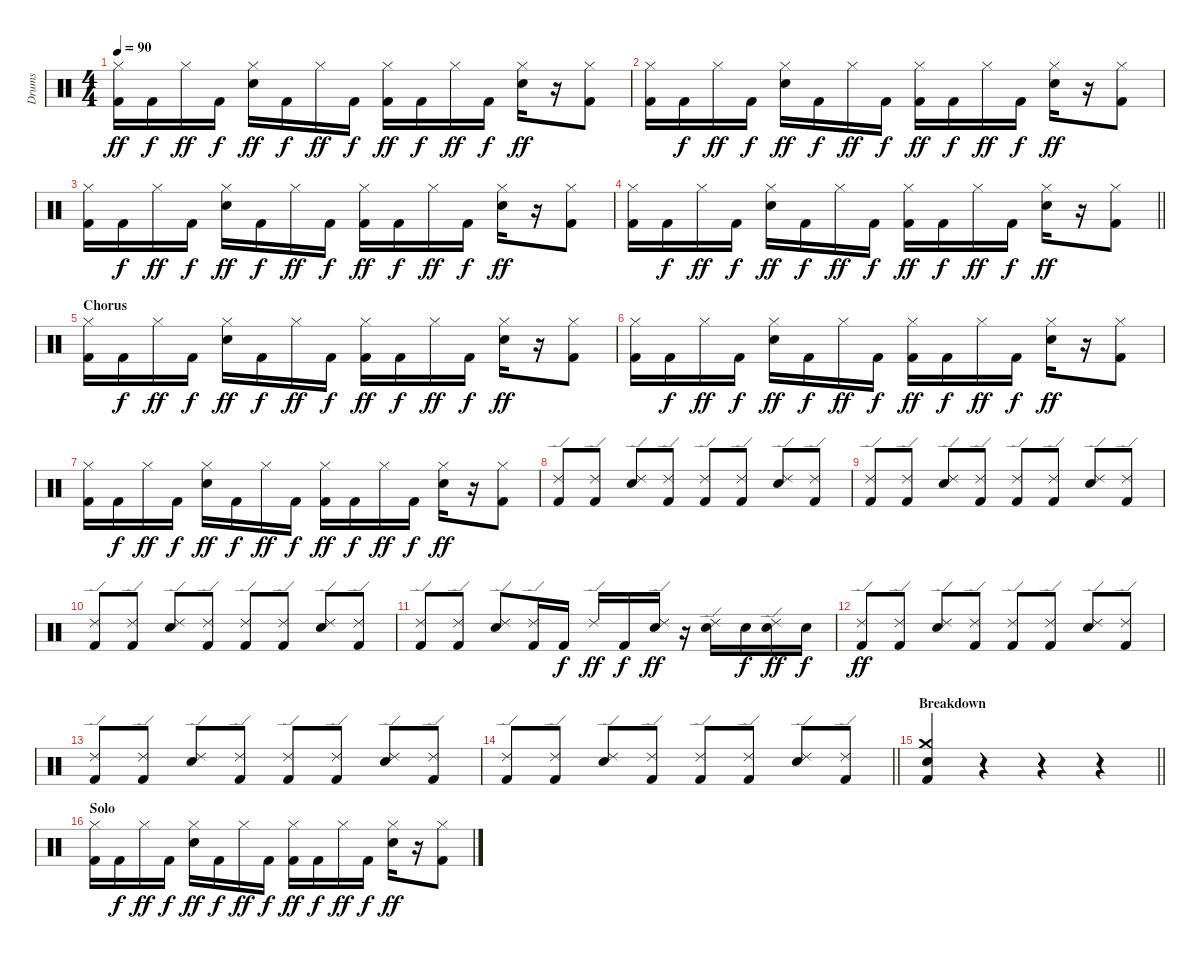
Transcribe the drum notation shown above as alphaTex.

\track ("Drums" "Drums") {instrument percussion}
\staff {score}
\articulation defaults
\ts (4 4)
\tempo 90
\clef neutral
\ks c
("Hi-Hat (closed)" "Kick (hit) 2").16{dy ff} "Kick (hit) 2".16{dy f} "Hi-Hat (closed)".16{dy ff} "Kick (hit) 2".16{dy f} ("Hi-Hat (closed)" "Electric Snare (hit)").16{dy ff} "Kick (hit) 2".16{dy f} "Hi-Hat (closed)".16{dy ff} "Kick (hit) 2".16{dy f} ("Hi-Hat (closed)" "Kick (hit) 2").16{dy ff} "Kick (hit) 2".16{dy f} "Hi-Hat (closed)".16{dy ff} "Kick (hit) 2".16{dy f} ("Hi-Hat (closed)" "Electric Snare (hit)").16{dy ff} r.16 ("Hi-Hat (closed)" "Kick (hit) 2").8 |
("Hi-Hat (closed)" "Kick (hit) 2").16 "Kick (hit) 2".16{dy f} "Hi-Hat (closed)".16{dy ff} "Kick (hit) 2".16{dy f} ("Hi-Hat (closed)" "Electric Snare (hit)").16{dy ff} "Kick (hit) 2".16{dy f} "Hi-Hat (closed)".16{dy ff} "Kick (hit) 2".16{dy f} ("Hi-Hat (closed)" "Kick (hit) 2").16{dy ff} "Kick (hit) 2".16{dy f} "Hi-Hat (closed)".16{dy ff} "Kick (hit) 2".16{dy f} ("Hi-Hat (closed)" "Electric Snare (hit)").16{dy ff} r.16 ("Hi-Hat (closed)" "Kick (hit) 2").8 |
("Hi-Hat (closed)" "Kick (hit) 2").16 "Kick (hit) 2".16{dy f} "Hi-Hat (closed)".16{dy ff} "Kick (hit) 2".16{dy f} ("Hi-Hat (closed)" "Electric Snare (hit)").16{dy ff} "Kick (hit) 2".16{dy f} "Hi-Hat (closed)".16{dy ff} "Kick (hit) 2".16{dy f} ("Hi-Hat (closed)" "Kick (hit) 2").16{dy ff} "Kick (hit) 2".16{dy f} "Hi-Hat (closed)".16{dy ff} "Kick (hit) 2".16{dy f} ("Hi-Hat (closed)" "Electric Snare (hit)").16{dy ff} r.16 ("Hi-Hat (closed)" "Kick (hit) 2").8 |
\barLineRight lightlight
("Hi-Hat (closed)" "Kick (hit) 2").16 "Kick (hit) 2".16{dy f} "Hi-Hat (closed)".16{dy ff} "Kick (hit) 2".16{dy f} ("Hi-Hat (closed)" "Electric Snare (hit)").16{dy ff} "Kick (hit) 2".16{dy f} "Hi-Hat (closed)".16{dy ff} "Kick (hit) 2".16{dy f} ("Hi-Hat (closed)" "Kick (hit) 2").16{dy ff} "Kick (hit) 2".16{dy f} "Hi-Hat (closed)".16{dy ff} "Kick (hit) 2".16{dy f} ("Hi-Hat (closed)" "Electric Snare (hit)").16{dy ff} r.16 ("Hi-Hat (closed)" "Kick (hit) 2").8 |
\section ("" "Chorus")
("Hi-Hat (closed)" "Kick (hit) 2").16 "Kick (hit) 2".16{dy f} "Hi-Hat (closed)".16{dy ff} "Kick (hit) 2".16{dy f} ("Hi-Hat (closed)" "Electric Snare (hit)").16{dy ff} "Kick (hit) 2".16{dy f} "Hi-Hat (closed)".16{dy ff} "Kick (hit) 2".16{dy f} ("Hi-Hat (closed)" "Kick (hit) 2").16{dy ff} "Kick (hit) 2".16{dy f} "Hi-Hat (closed)".16{dy ff} "Kick (hit) 2".16{dy f} ("Hi-Hat (closed)" "Electric Snare (hit)").16{dy ff} r.16 ("Hi-Hat (closed)" "Kick (hit) 2").8 |
("Hi-Hat (closed)" "Kick (hit) 2").16 "Kick (hit) 2".16{dy f} "Hi-Hat (closed)".16{dy ff} "Kick (hit) 2".16{dy f} ("Hi-Hat (closed)" "Electric Snare (hit)").16{dy ff} "Kick (hit) 2".16{dy f} "Hi-Hat (closed)".16{dy ff} "Kick (hit) 2".16{dy f} ("Hi-Hat (closed)" "Kick (hit) 2").16{dy ff} "Kick (hit) 2".16{dy f} "Hi-Hat (closed)".16{dy ff} "Kick (hit) 2".16{dy f} ("Hi-Hat (closed)" "Electric Snare (hit)").16{dy ff} r.16 ("Hi-Hat (closed)" "Kick (hit) 2").8 |
("Hi-Hat (closed)" "Kick (hit) 2").16 "Kick (hit) 2".16{dy f} "Hi-Hat (closed)".16{dy ff} "Kick (hit) 2".16{dy f} ("Hi-Hat (closed)" "Electric Snare (hit)").16{dy ff} "Kick (hit) 2".16{dy f} "Hi-Hat (closed)".16{dy ff} "Kick (hit) 2".16{dy f} ("Hi-Hat (closed)" "Kick (hit) 2").16{dy ff} "Kick (hit) 2".16{dy f} "Hi-Hat (closed)".16{dy ff} "Kick (hit) 2".16{dy f} ("Hi-Hat (closed)" "Electric Snare (hit)").16{dy ff} r.16 ("Hi-Hat (closed)" "Kick (hit) 2").8 |
("Ride (edge) 2" "Kick (hit) 2").8 ("Ride (edge) 2" "Kick (hit) 2").8 ("Ride (edge) 2" "Electric Snare (hit)").8 ("Ride (edge) 2" "Kick (hit) 2").8 ("Ride (edge) 2" "Kick (hit) 2").8 ("Ride (edge) 2" "Kick (hit) 2").8 ("Ride (edge) 2" "Electric Snare (hit)").8 ("Ride (edge) 2" "Kick (hit) 2").8 |
("Ride (edge) 2" "Kick (hit) 2").8 ("Ride (edge) 2" "Kick (hit) 2").8 ("Ride (edge) 2" "Electric Snare (hit)").8 ("Ride (edge) 2" "Kick (hit) 2").8 ("Ride (edge) 2" "Kick (hit) 2").8 ("Ride (edge) 2" "Kick (hit) 2").8 ("Ride (edge) 2" "Electric Snare (hit)").8 ("Ride (edge) 2" "Kick (hit) 2").8 |
("Ride (edge) 2" "Kick (hit) 2").8 ("Ride (edge) 2" "Kick (hit) 2").8 ("Ride (edge) 2" "Electric Snare (hit)").8 ("Ride (edge) 2" "Kick (hit) 2").8 ("Ride (edge) 2" "Kick (hit) 2").8 ("Ride (edge) 2" "Kick (hit) 2").8 ("Ride (edge) 2" "Electric Snare (hit)").8 ("Ride (edge) 2" "Kick (hit) 2").8 |
("Ride (edge) 2" "Kick (hit) 2").8 ("Ride (edge) 2" "Kick (hit) 2").8 ("Ride (edge) 2" "Electric Snare (hit)").8 ("Ride (edge) 2" "Kick (hit) 2").16 "Kick (hit) 2".16{dy f} "Ride (edge) 2".16{dy ff} "Kick (hit) 2".16{dy f} ("Ride (edge) 2" "Electric Snare (hit)").16{dy ff} r.16 ("Ride (edge) 2" "Electric Snare (hit)").16 "Electric Snare (hit)".16{dy f} ("Ride (edge) 2" "Electric Snare (hit)").16{dy ff} "Electric Snare (hit)".16{dy f} |
("Ride (edge) 2" "Kick (hit) 2").8{dy ff} ("Ride (edge) 2" "Kick (hit) 2").8 ("Ride (edge) 2" "Electric Snare (hit)").8 ("Ride (edge) 2" "Kick (hit) 2").8 ("Ride (edge) 2" "Kick (hit) 2").8 ("Ride (edge) 2" "Kick (hit) 2").8 ("Ride (edge) 2" "Electric Snare (hit)").8 ("Ride (edge) 2" "Kick (hit) 2").8 |
("Ride (edge) 2" "Kick (hit) 2").8 ("Ride (edge) 2" "Kick (hit) 2").8 ("Ride (edge) 2" "Electric Snare (hit)").8 ("Ride (edge) 2" "Kick (hit) 2").8 ("Ride (edge) 2" "Kick (hit) 2").8 ("Ride (edge) 2" "Kick (hit) 2").8 ("Ride (edge) 2" "Electric Snare (hit)").8 ("Ride (edge) 2" "Kick (hit) 2").8 |
\barLineRight lightlight
("Ride (edge) 2" "Kick (hit) 2").8 ("Ride (edge) 2" "Kick (hit) 2").8 ("Ride (edge) 2" "Electric Snare (hit)").8 ("Ride (edge) 2" "Kick (hit) 2").8 ("Ride (edge) 2" "Kick (hit) 2").8 ("Ride (edge) 2" "Kick (hit) 2").8 ("Ride (edge) 2" "Electric Snare (hit)").8 ("Ride (edge) 2" "Kick (hit) 2").8 |
\section ("" "Breakdown")
\barLineRight lightlight
("Crash medium (hit)" "Snare (hit) 2" "Kick (hit) 2").4 r.4 r.4 r.4 |
\section ("" "Solo")
("Hi-Hat (closed)" "Kick (hit) 2").16 "Kick (hit) 2".16{dy f} "Hi-Hat (closed)".16{dy ff} "Kick (hit) 2".16{dy f} ("Hi-Hat (closed)" "Electric Snare (hit)").16{dy ff} "Kick (hit) 2".16{dy f} "Hi-Hat (closed)".16{dy ff} "Kick (hit) 2".16{dy f} ("Hi-Hat (closed)" "Kick (hit) 2").16{dy ff} "Kick (hit) 2".16{dy f} "Hi-Hat (closed)".16{dy ff} "Kick (hit) 2".16{dy f} ("Hi-Hat (closed)" "Electric Snare (hit)").16{dy ff} r.16 ("Hi-Hat (closed)" "Kick (hit) 2").8
